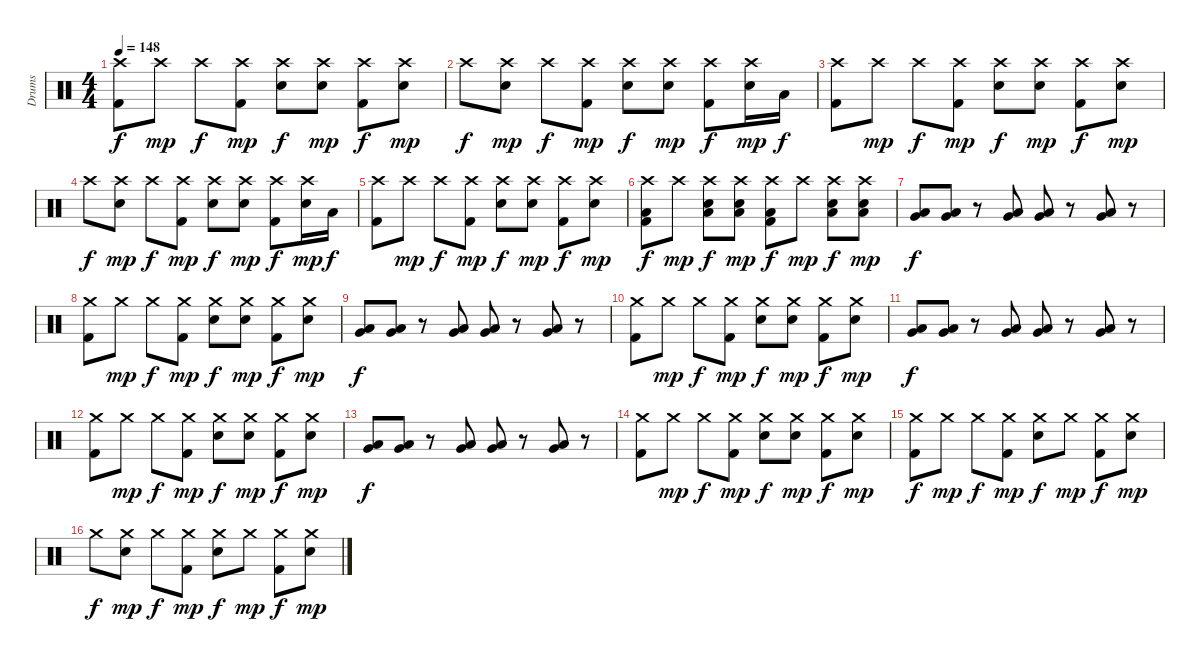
\track ("Drums" "Drums") {instrument percussion}
\staff {score}
\articulation defaults
\ts (4 4)
\tempo 148
\clef neutral
\ks c
("Crash high (hit)" "Kick (hit) 2").8{dy f} "Crash high (hit)".8{dy mp} "Crash high (hit)".8{dy f} ("Crash high (hit)" "Kick (hit) 2").8{dy mp} ("Crash high (hit)" "Snare (hit) 2").8{dy f} ("Crash high (hit)" "Snare (hit) 2").8{dy mp} ("Crash high (hit)" "Kick (hit) 2").8{dy f} ("Crash high (hit)" "Snare (hit) 2").8{dy mp} |
"Crash high (hit)".8{dy f} ("Crash high (hit)" "Snare (hit) 2").8{dy mp} "Crash high (hit)".8{dy f} ("Crash high (hit)" "Kick (hit) 2").8{dy mp} ("Crash high (hit)" "Snare (hit) 2").8{dy f} ("Crash high (hit)" "Snare (hit) 2").8{dy mp} ("Crash high (hit)" "Kick (hit) 2").8{dy f} ("Crash high (hit)" "Snare (hit) 2").16{dy mp} "Low Tom (hit)".16{dy f} |
("Crash high (hit)" "Kick (hit) 2").8 "Crash high (hit)".8{dy mp} "Crash high (hit)".8{dy f} ("Crash high (hit)" "Kick (hit) 2").8{dy mp} ("Crash high (hit)" "Snare (hit) 2").8{dy f} ("Crash high (hit)" "Snare (hit) 2").8{dy mp} ("Crash high (hit)" "Kick (hit) 2").8{dy f} ("Crash high (hit)" "Snare (hit) 2").8{dy mp} |
"Crash high (hit)".8{dy f} ("Crash high (hit)" "Snare (hit) 2").8{dy mp} "Crash high (hit)".8{dy f} ("Crash high (hit)" "Kick (hit) 2").8{dy mp} ("Crash high (hit)" "Snare (hit) 2").8{dy f} ("Crash high (hit)" "Snare (hit) 2").8{dy mp} ("Crash high (hit)" "Kick (hit) 2").8{dy f} ("Crash high (hit)" "Snare (hit) 2").16{dy mp} "Low Tom (hit)".16{dy f} |
("Crash high (hit)" "Kick (hit) 2").8 "Crash high (hit)".8{dy mp} "Crash high (hit)".8{dy f} ("Crash high (hit)" "Kick (hit) 2").8{dy mp} ("Crash high (hit)" "Snare (hit) 2").8{dy f} ("Crash high (hit)" "Snare (hit) 2").8{dy mp} ("Crash high (hit)" "Kick (hit) 2").8{dy f} ("Crash high (hit)" "Snare (hit) 2").8{dy mp} |
("Crash high (hit)" "Low Tom (hit)" "Kick (hit) 2").8{dy f} "Crash high (hit)".8{dy mp} ("Crash high (hit)" "Low Tom (hit)" "Snare (hit) 2").8{dy f} ("Crash high (hit)" "Low Tom (hit)" "Snare (hit) 2").8{dy mp} ("Crash high (hit)" "Low Tom (hit)" "Kick (hit) 2").8{dy f} "Crash high (hit)".8{dy mp} ("Crash high (hit)" "Low Tom (hit)" "Snare (hit) 2").8{dy f} ("Crash high (hit)" "Low Tom (hit)" "Snare (hit) 2").8{dy mp} |
("Low Tom (hit)" "Very Low Tom (hit)").8{dy f} ("Low Tom (hit)" "Very Low Tom (hit)").8 r.8 ("Low Tom (hit)" "Very Low Tom (hit)").8 ("Low Tom (hit)" "Very Low Tom (hit)").8 r.8 ("Low Tom (hit)" "Very Low Tom (hit)").8 r.8 |
("Crash medium (hit)" "Kick (hit) 2").8 "Crash medium (hit)".8{dy mp} "Crash medium (hit)".8{dy f} ("Crash medium (hit)" "Kick (hit) 2").8{dy mp} ("Crash medium (hit)" "Snare (hit) 2").8{dy f} ("Crash medium (hit)" "Snare (hit) 2").8{dy mp} ("Crash medium (hit)" "Kick (hit) 2").8{dy f} ("Crash medium (hit)" "Snare (hit) 2").8{dy mp} |
("Low Tom (hit)" "Very Low Tom (hit)").8{dy f} ("Low Tom (hit)" "Very Low Tom (hit)").8 r.8 ("Low Tom (hit)" "Very Low Tom (hit)").8 ("Low Tom (hit)" "Very Low Tom (hit)").8 r.8 ("Low Tom (hit)" "Very Low Tom (hit)").8 r.8 |
("Crash medium (hit)" "Kick (hit) 2").8 "Crash medium (hit)".8{dy mp} "Crash medium (hit)".8{dy f} ("Crash medium (hit)" "Kick (hit) 2").8{dy mp} ("Crash medium (hit)" "Snare (hit) 2").8{dy f} ("Crash medium (hit)" "Snare (hit) 2").8{dy mp} ("Crash medium (hit)" "Kick (hit) 2").8{dy f} ("Crash medium (hit)" "Snare (hit) 2").8{dy mp} |
("Low Tom (hit)" "Very Low Tom (hit)").8{dy f} ("Low Tom (hit)" "Very Low Tom (hit)").8 r.8 ("Low Tom (hit)" "Very Low Tom (hit)").8 ("Low Tom (hit)" "Very Low Tom (hit)").8 r.8 ("Low Tom (hit)" "Very Low Tom (hit)").8 r.8 |
("Crash medium (hit)" "Kick (hit) 2").8 "Crash medium (hit)".8{dy mp} "Crash medium (hit)".8{dy f} ("Crash medium (hit)" "Kick (hit) 2").8{dy mp} ("Crash medium (hit)" "Snare (hit) 2").8{dy f} ("Crash medium (hit)" "Snare (hit) 2").8{dy mp} ("Crash medium (hit)" "Kick (hit) 2").8{dy f} ("Crash medium (hit)" "Snare (hit) 2").8{dy mp} |
("Low Tom (hit)" "Very Low Tom (hit)").8{dy f} ("Low Tom (hit)" "Very Low Tom (hit)").8 r.8 ("Low Tom (hit)" "Very Low Tom (hit)").8 ("Low Tom (hit)" "Very Low Tom (hit)").8 r.8 ("Low Tom (hit)" "Very Low Tom (hit)").8 r.8 |
("Crash medium (hit)" "Kick (hit) 2").8 "Crash medium (hit)".8{dy mp} "Crash medium (hit)".8{dy f} ("Crash medium (hit)" "Kick (hit) 2").8{dy mp} ("Crash medium (hit)" "Snare (hit) 2").8{dy f} ("Crash medium (hit)" "Snare (hit) 2").8{dy mp} ("Crash medium (hit)" "Kick (hit) 2").8{dy f} ("Crash medium (hit)" "Snare (hit) 2").8{dy mp} |
("Crash medium (hit)" "Kick (hit) 2").8{dy f} "Crash medium (hit)".8{dy mp} "Crash medium (hit)".8{dy f} ("Crash medium (hit)" "Kick (hit) 2").8{dy mp} ("Crash medium (hit)" "Snare (hit) 2").8{dy f} "Crash medium (hit)".8{dy mp} ("Crash medium (hit)" "Kick (hit) 2").8{dy f} ("Crash medium (hit)" "Snare (hit) 2").8{dy mp} |
"Crash medium (hit)".8{dy f} ("Crash medium (hit)" "Snare (hit) 2").8{dy mp} "Crash medium (hit)".8{dy f} ("Crash medium (hit)" "Kick (hit) 2").8{dy mp} ("Crash medium (hit)" "Snare (hit) 2").8{dy f} "Crash medium (hit)".8{dy mp} ("Crash medium (hit)" "Kick (hit) 2").8{dy f} ("Crash medium (hit)" "Snare (hit) 2").8{dy mp}
